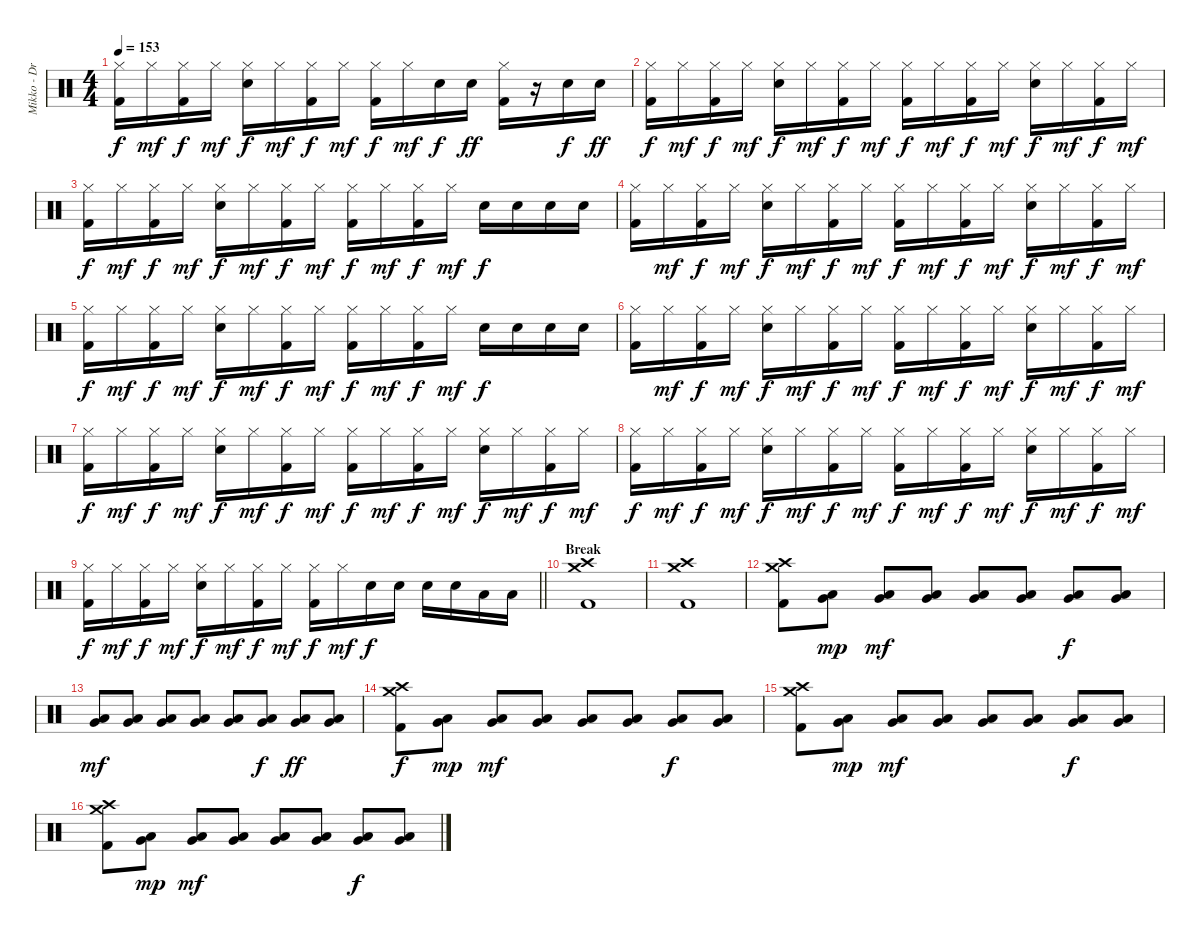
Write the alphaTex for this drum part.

\track ("Mikko - Drums" "Mikko - Dr") {instrument percussion}
\staff {score}
\articulation defaults
\ts (4 4)
\tempo 153
\clef neutral
\ks c
("Hi-Hat (closed)" "Kick (hit) 2").16{dy f} "Hi-Hat (closed)".16{dy mf} ("Hi-Hat (closed)" "Kick (hit) 2").16{dy f} "Hi-Hat (closed)".16{dy mf} ("Hi-Hat (closed)" "Snare (hit) 2").16{dy f} "Hi-Hat (closed)".16{dy mf} ("Hi-Hat (closed)" "Kick (hit) 2").16{dy f} "Hi-Hat (closed)".16{dy mf} ("Hi-Hat (closed)" "Kick (hit) 2").16{dy f} "Hi-Hat (closed)".16{dy mf} "Snare (hit) 2".16{dy f} "Snare (hit) 2".16{dy ff} ("Hi-Hat (closed)" "Kick (hit) 2").16 r.16 "Snare (hit) 2".16{dy f} "Snare (hit) 2".16{dy ff} |
("Hi-Hat (closed)" "Kick (hit) 2").16{dy f} "Hi-Hat (closed)".16{dy mf} ("Hi-Hat (closed)" "Kick (hit) 2").16{dy f} "Hi-Hat (closed)".16{dy mf} ("Hi-Hat (closed)" "Snare (hit) 2").16{dy f} "Hi-Hat (closed)".16{dy mf} ("Hi-Hat (closed)" "Kick (hit) 2").16{dy f} "Hi-Hat (closed)".16{dy mf} ("Hi-Hat (closed)" "Kick (hit) 2").16{dy f} "Hi-Hat (closed)".16{dy mf} ("Hi-Hat (closed)" "Kick (hit) 2").16{dy f} "Hi-Hat (closed)".16{dy mf} ("Hi-Hat (closed)" "Snare (hit) 2").16{dy f} "Hi-Hat (closed)".16{dy mf} ("Hi-Hat (closed)" "Kick (hit) 2").16{dy f} "Hi-Hat (closed)".16{dy mf} |
("Hi-Hat (closed)" "Kick (hit) 2").16{dy f} "Hi-Hat (closed)".16{dy mf} ("Hi-Hat (closed)" "Kick (hit) 2").16{dy f} "Hi-Hat (closed)".16{dy mf} ("Hi-Hat (closed)" "Snare (hit) 2").16{dy f} "Hi-Hat (closed)".16{dy mf} ("Hi-Hat (closed)" "Kick (hit) 2").16{dy f} "Hi-Hat (closed)".16{dy mf} ("Hi-Hat (closed)" "Kick (hit) 2").16{dy f} "Hi-Hat (closed)".16{dy mf} ("Hi-Hat (closed)" "Kick (hit) 2").16{dy f} "Hi-Hat (closed)".16{dy mf} "Snare (hit) 2".16{dy f} "Snare (hit) 2".16 "Snare (hit) 2".16 "Snare (hit) 2".16 |
("Hi-Hat (closed)" "Kick (hit) 2").16 "Hi-Hat (closed)".16{dy mf} ("Hi-Hat (closed)" "Kick (hit) 2").16{dy f} "Hi-Hat (closed)".16{dy mf} ("Hi-Hat (closed)" "Snare (hit) 2").16{dy f} "Hi-Hat (closed)".16{dy mf} ("Hi-Hat (closed)" "Kick (hit) 2").16{dy f} "Hi-Hat (closed)".16{dy mf} ("Hi-Hat (closed)" "Kick (hit) 2").16{dy f} "Hi-Hat (closed)".16{dy mf} ("Hi-Hat (closed)" "Kick (hit) 2").16{dy f} "Hi-Hat (closed)".16{dy mf} ("Hi-Hat (closed)" "Snare (hit) 2").16{dy f} "Hi-Hat (closed)".16{dy mf} ("Hi-Hat (closed)" "Kick (hit) 2").16{dy f} "Hi-Hat (closed)".16{dy mf} |
("Hi-Hat (closed)" "Kick (hit) 2").16{dy f} "Hi-Hat (closed)".16{dy mf} ("Hi-Hat (closed)" "Kick (hit) 2").16{dy f} "Hi-Hat (closed)".16{dy mf} ("Hi-Hat (closed)" "Snare (hit) 2").16{dy f} "Hi-Hat (closed)".16{dy mf} ("Hi-Hat (closed)" "Kick (hit) 2").16{dy f} "Hi-Hat (closed)".16{dy mf} ("Hi-Hat (closed)" "Kick (hit) 2").16{dy f} "Hi-Hat (closed)".16{dy mf} ("Hi-Hat (closed)" "Kick (hit) 2").16{dy f} "Hi-Hat (closed)".16{dy mf} "Snare (hit) 2".16{dy f} "Snare (hit) 2".16 "Snare (hit) 2".16 "Snare (hit) 2".16 |
("Hi-Hat (closed)" "Kick (hit) 2").16 "Hi-Hat (closed)".16{dy mf} ("Hi-Hat (closed)" "Kick (hit) 2").16{dy f} "Hi-Hat (closed)".16{dy mf} ("Hi-Hat (closed)" "Snare (hit) 2").16{dy f} "Hi-Hat (closed)".16{dy mf} ("Hi-Hat (closed)" "Kick (hit) 2").16{dy f} "Hi-Hat (closed)".16{dy mf} ("Hi-Hat (closed)" "Kick (hit) 2").16{dy f} "Hi-Hat (closed)".16{dy mf} ("Hi-Hat (closed)" "Kick (hit) 2").16{dy f} "Hi-Hat (closed)".16{dy mf} ("Hi-Hat (closed)" "Snare (hit) 2").16{dy f} "Hi-Hat (closed)".16{dy mf} ("Hi-Hat (closed)" "Kick (hit) 2").16{dy f} "Hi-Hat (closed)".16{dy mf} |
("Hi-Hat (closed)" "Kick (hit) 2").16{dy f} "Hi-Hat (closed)".16{dy mf} ("Hi-Hat (closed)" "Kick (hit) 2").16{dy f} "Hi-Hat (closed)".16{dy mf} ("Hi-Hat (closed)" "Snare (hit) 2").16{dy f} "Hi-Hat (closed)".16{dy mf} ("Hi-Hat (closed)" "Kick (hit) 2").16{dy f} "Hi-Hat (closed)".16{dy mf} ("Hi-Hat (closed)" "Kick (hit) 2").16{dy f} "Hi-Hat (closed)".16{dy mf} ("Hi-Hat (closed)" "Kick (hit) 2").16{dy f} "Hi-Hat (closed)".16{dy mf} ("Hi-Hat (closed)" "Snare (hit) 2").16{dy f} "Hi-Hat (closed)".16{dy mf} ("Hi-Hat (closed)" "Kick (hit) 2").16{dy f} "Hi-Hat (closed)".16{dy mf} |
("Hi-Hat (closed)" "Kick (hit) 2").16{dy f} "Hi-Hat (closed)".16{dy mf} ("Hi-Hat (closed)" "Kick (hit) 2").16{dy f} "Hi-Hat (closed)".16{dy mf} ("Hi-Hat (closed)" "Snare (hit) 2").16{dy f} "Hi-Hat (closed)".16{dy mf} ("Hi-Hat (closed)" "Kick (hit) 2").16{dy f} "Hi-Hat (closed)".16{dy mf} ("Hi-Hat (closed)" "Kick (hit) 2").16{dy f} "Hi-Hat (closed)".16{dy mf} ("Hi-Hat (closed)" "Kick (hit) 2").16{dy f} "Hi-Hat (closed)".16{dy mf} ("Hi-Hat (closed)" "Snare (hit) 2").16{dy f} "Hi-Hat (closed)".16{dy mf} ("Hi-Hat (closed)" "Kick (hit) 2").16{dy f} "Hi-Hat (closed)".16{dy mf} |
\barLineRight lightlight
("Hi-Hat (closed)" "Kick (hit) 2").16{dy f} "Hi-Hat (closed)".16{dy mf} ("Hi-Hat (closed)" "Kick (hit) 2").16{dy f} "Hi-Hat (closed)".16{dy mf} ("Hi-Hat (closed)" "Snare (hit) 2").16{dy f} "Hi-Hat (closed)".16{dy mf} ("Hi-Hat (closed)" "Kick (hit) 2").16{dy f} "Hi-Hat (closed)".16{dy mf} ("Hi-Hat (closed)" "Kick (hit) 2").16{dy f} "Hi-Hat (closed)".16{dy mf} "Snare (hit) 2".16{dy f} "Snare (hit) 2".16 "Snare (hit) 2".16 "Snare (hit) 2".16 "Low Tom (hit)".16 "Low Tom (hit)".16 |
\section ("" "Break")
("Crash medium (hit)" "Crash high (hit)" "Kick (hit) 2").1 |
("Crash medium (hit)" "Crash high (hit)" "Kick (hit) 2").1 |
("Crash medium (hit)" "Crash high (hit)" "Kick (hit) 2").8 ("Low Tom (hit)" "Very Low Tom (hit)").8{dy mp} ("Low Tom (hit)" "Very Low Tom (hit)").8{dy mf} ("Low Tom (hit)" "Very Low Tom (hit)").8 ("Low Tom (hit)" "Very Low Tom (hit)").8 ("Low Tom (hit)" "Very Low Tom (hit)").8 ("Low Tom (hit)" "Very Low Tom (hit)").8{dy f} ("Low Tom (hit)" "Very Low Tom (hit)").8 |
("Low Tom (hit)" "Very Low Tom (hit)").8{dy mf} ("Low Tom (hit)" "Very Low Tom (hit)").8 ("Low Tom (hit)" "Very Low Tom (hit)").8 ("Low Tom (hit)" "Very Low Tom (hit)").8 ("Low Tom (hit)" "Very Low Tom (hit)").8 ("Low Tom (hit)" "Very Low Tom (hit)").8{dy f} ("Low Tom (hit)" "Very Low Tom (hit)").8{dy ff} ("Low Tom (hit)" "Very Low Tom (hit)").8 |
("Crash medium (hit)" "Crash high (hit)" "Kick (hit) 2").8{dy f} ("Low Tom (hit)" "Very Low Tom (hit)").8{dy mp} ("Low Tom (hit)" "Very Low Tom (hit)").8{dy mf} ("Low Tom (hit)" "Very Low Tom (hit)").8 ("Low Tom (hit)" "Very Low Tom (hit)").8 ("Low Tom (hit)" "Very Low Tom (hit)").8 ("Low Tom (hit)" "Very Low Tom (hit)").8{dy f} ("Low Tom (hit)" "Very Low Tom (hit)").8 |
("Crash medium (hit)" "Crash high (hit)" "Kick (hit) 2").8 ("Low Tom (hit)" "Very Low Tom (hit)").8{dy mp} ("Low Tom (hit)" "Very Low Tom (hit)").8{dy mf} ("Low Tom (hit)" "Very Low Tom (hit)").8 ("Low Tom (hit)" "Very Low Tom (hit)").8 ("Low Tom (hit)" "Very Low Tom (hit)").8 ("Low Tom (hit)" "Very Low Tom (hit)").8{dy f} ("Low Tom (hit)" "Very Low Tom (hit)").8 |
("Crash medium (hit)" "Crash high (hit)" "Kick (hit) 2").8 ("Low Tom (hit)" "Very Low Tom (hit)").8{dy mp} ("Low Tom (hit)" "Very Low Tom (hit)").8{dy mf} ("Low Tom (hit)" "Very Low Tom (hit)").8 ("Low Tom (hit)" "Very Low Tom (hit)").8 ("Low Tom (hit)" "Very Low Tom (hit)").8 ("Low Tom (hit)" "Very Low Tom (hit)").8{dy f} ("Low Tom (hit)" "Very Low Tom (hit)").8
